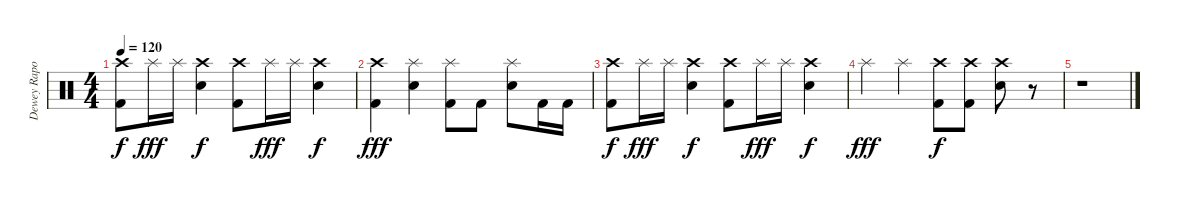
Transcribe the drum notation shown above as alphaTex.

\track ("Dewey Raposo" "Dewey Rapo") {instrument percussion}
\staff {score}
\articulation defaults
\ts (4 4)
\tempo 120
\clef neutral
\ks c
("Crash high (hit)" "Kick (hit) 2").8{dy f} "Splash (hit)".16{dy fff} "Splash (hit)".16 ("Crash high (hit)" "Electric Snare (hit)").4{dy f} ("Crash high (hit)" "Kick (hit) 2").8 "Splash (hit)".16{dy fff} "Splash (hit)".16 ("Crash high (hit)" "Electric Snare (hit)").4{dy f} |
("Crash high (hit)" "Kick (hit) 2").4{dy fff} ("Splash (hit)" "Electric Snare (hit)").4 ("Splash (hit)" "Kick (hit) 2").8 "Kick (hit) 2".8 ("Splash (hit)" "Electric Snare (hit)").8 "Kick (hit) 2".16 "Kick (hit) 2".16 |
("Crash high (hit)" "Kick (hit) 2").8{dy f} "Splash (hit)".16{dy fff} "Splash (hit)".16 ("Crash high (hit)" "Electric Snare (hit)").4{dy f} ("Crash high (hit)" "Kick (hit) 2").8 "Splash (hit)".16{dy fff} "Splash (hit)".16 ("Crash high (hit)" "Electric Snare (hit)").4{dy f} |
"Splash (hit)".4{dy fff} "Splash (hit)".4 ("Crash high (hit)" "Kick (hit) 2").8{dy f} ("Crash high (hit)" "Kick (hit) 2").8 ("Crash high (hit)" "Electric Snare (hit)").8 r.8{volume 0} |
r.1
